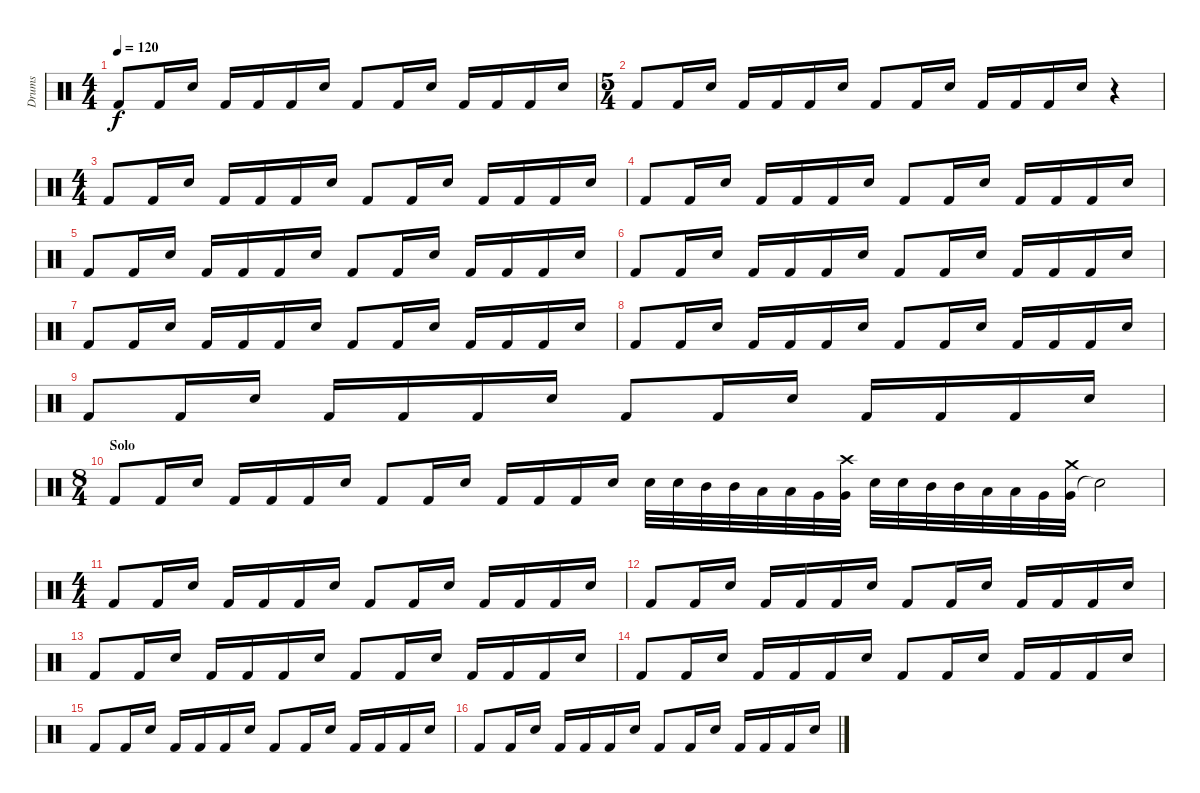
\track ("Drums" "Drums") {instrument percussion}
\staff {score}
\articulation defaults
\ts (4 4)
\tempo 120
\clef neutral
\ks c "Kick (hit) 2".8{dy f} "Kick (hit) 2".16 "Electric Snare (hit)".16 "Kick (hit) 2".16 "Kick (hit) 2".16 "Kick (hit) 2".16 "Electric Snare (hit)".16 "Kick (hit) 2".8 "Kick (hit) 2".16 "Electric Snare (hit)".16 "Kick (hit) 2".16 "Kick (hit) 2".16 "Kick (hit) 2".16 "Electric Snare (hit)".16
|
\ts (5 4)
"Kick (hit) 2".8 "Kick (hit) 2".16 "Electric Snare (hit)".16 "Kick (hit) 2".16 "Kick (hit) 2".16 "Kick (hit) 2".16 "Electric Snare (hit)".16 "Kick (hit) 2".8 "Kick (hit) 2".16 "Electric Snare (hit)".16 "Kick (hit) 2".16 "Kick (hit) 2".16 "Kick (hit) 2".16 "Electric Snare (hit)".16 r.4 |
\ts (4 4)
"Kick (hit) 2".8 "Kick (hit) 2".16 "Electric Snare (hit)".16 "Kick (hit) 2".16 "Kick (hit) 2".16 "Kick (hit) 2".16 "Electric Snare (hit)".16 "Kick (hit) 2".8 "Kick (hit) 2".16 "Electric Snare (hit)".16 "Kick (hit) 2".16 "Kick (hit) 2".16 "Kick (hit) 2".16 "Electric Snare (hit)".16 |
"Kick (hit) 2".8 "Kick (hit) 2".16 "Electric Snare (hit)".16 "Kick (hit) 2".16 "Kick (hit) 2".16 "Kick (hit) 2".16 "Electric Snare (hit)".16 "Kick (hit) 2".8 "Kick (hit) 2".16 "Electric Snare (hit)".16 "Kick (hit) 2".16 "Kick (hit) 2".16 "Kick (hit) 2".16 "Electric Snare (hit)".16 |
"Kick (hit) 2".8 "Kick (hit) 2".16 "Electric Snare (hit)".16 "Kick (hit) 2".16 "Kick (hit) 2".16 "Kick (hit) 2".16 "Electric Snare (hit)".16 "Kick (hit) 2".8 "Kick (hit) 2".16 "Electric Snare (hit)".16 "Kick (hit) 2".16 "Kick (hit) 2".16 "Kick (hit) 2".16 "Electric Snare (hit)".16 |
"Kick (hit) 2".8 "Kick (hit) 2".16 "Electric Snare (hit)".16 "Kick (hit) 2".16 "Kick (hit) 2".16 "Kick (hit) 2".16 "Electric Snare (hit)".16 "Kick (hit) 2".8 "Kick (hit) 2".16 "Electric Snare (hit)".16 "Kick (hit) 2".16 "Kick (hit) 2".16 "Kick (hit) 2".16 "Electric Snare (hit)".16 |
"Kick (hit) 2".8 "Kick (hit) 2".16 "Electric Snare (hit)".16 "Kick (hit) 2".16 "Kick (hit) 2".16 "Kick (hit) 2".16 "Electric Snare (hit)".16 "Kick (hit) 2".8 "Kick (hit) 2".16 "Electric Snare (hit)".16 "Kick (hit) 2".16 "Kick (hit) 2".16 "Kick (hit) 2".16 "Electric Snare (hit)".16 |
"Kick (hit) 2".8 "Kick (hit) 2".16 "Electric Snare (hit)".16 "Kick (hit) 2".16 "Kick (hit) 2".16 "Kick (hit) 2".16 "Electric Snare (hit)".16 "Kick (hit) 2".8 "Kick (hit) 2".16 "Electric Snare (hit)".16 "Kick (hit) 2".16 "Kick (hit) 2".16 "Kick (hit) 2".16 "Electric Snare (hit)".16 |
"Kick (hit) 2".8 "Kick (hit) 2".16 "Electric Snare (hit)".16 "Kick (hit) 2".16 "Kick (hit) 2".16 "Kick (hit) 2".16 "Electric Snare (hit)".16 "Kick (hit) 2".8 "Kick (hit) 2".16 "Electric Snare (hit)".16 "Kick (hit) 2".16 "Kick (hit) 2".16 "Kick (hit) 2".16 "Electric Snare (hit)".16 |
\ts (8 4)
\section ("" "Solo")
"Kick (hit) 2".8 "Kick (hit) 2".16 "Electric Snare (hit)".16 "Kick (hit) 2".16 "Kick (hit) 2".16 "Kick (hit) 2".16 "Electric Snare (hit)".16 "Kick (hit) 2".8 "Kick (hit) 2".16 "Electric Snare (hit)".16 "Kick (hit) 2".16 "Kick (hit) 2".16 "Kick (hit) 2".16 "Electric Snare (hit)".16 "Snare (hit) 2".32 "Snare (hit) 2".32 "Mid Tom (hit)".32 "Mid Tom (hit)".32 "Low Tom (hit)".32 "Low Tom (hit)".32 "Very Low Tom (hit)".32 ("Very Low Tom (hit)" "Crash high (hit)").32 "Snare (hit) 2".32 "Snare (hit) 2".32 "Mid Tom (hit)".32 "Mid Tom (hit)".32 "Low Tom (hit)".32 "Low Tom (hit)".32 "Very Low Tom (hit)".32 ("Very Low Tom (hit)" "Crash medium (hit)").32 "Snare (hit)"{t}.2 |
\ts (4 4)
"Kick (hit) 2".8 "Kick (hit) 2".16 "Electric Snare (hit)".16 "Kick (hit) 2".16 "Kick (hit) 2".16 "Kick (hit) 2".16 "Electric Snare (hit)".16 "Kick (hit) 2".8 "Kick (hit) 2".16 "Electric Snare (hit)".16 "Kick (hit) 2".16 "Kick (hit) 2".16 "Kick (hit) 2".16 "Electric Snare (hit)".16 |
"Kick (hit) 2".8 "Kick (hit) 2".16 "Electric Snare (hit)".16 "Kick (hit) 2".16 "Kick (hit) 2".16 "Kick (hit) 2".16 "Electric Snare (hit)".16 "Kick (hit) 2".8 "Kick (hit) 2".16 "Electric Snare (hit)".16 "Kick (hit) 2".16 "Kick (hit) 2".16 "Kick (hit) 2".16 "Electric Snare (hit)".16 |
"Kick (hit) 2".8 "Kick (hit) 2".16 "Electric Snare (hit)".16 "Kick (hit) 2".16 "Kick (hit) 2".16 "Kick (hit) 2".16 "Electric Snare (hit)".16 "Kick (hit) 2".8 "Kick (hit) 2".16 "Electric Snare (hit)".16 "Kick (hit) 2".16 "Kick (hit) 2".16 "Kick (hit) 2".16 "Electric Snare (hit)".16 |
"Kick (hit) 2".8 "Kick (hit) 2".16 "Electric Snare (hit)".16 "Kick (hit) 2".16 "Kick (hit) 2".16 "Kick (hit) 2".16 "Electric Snare (hit)".16 "Kick (hit) 2".8 "Kick (hit) 2".16 "Electric Snare (hit)".16 "Kick (hit) 2".16 "Kick (hit) 2".16 "Kick (hit) 2".16 "Electric Snare (hit)".16 |
"Kick (hit) 2".8 "Kick (hit) 2".16 "Electric Snare (hit)".16 "Kick (hit) 2".16 "Kick (hit) 2".16 "Kick (hit) 2".16 "Electric Snare (hit)".16 "Kick (hit) 2".8 "Kick (hit) 2".16 "Electric Snare (hit)".16 "Kick (hit) 2".16 "Kick (hit) 2".16 "Kick (hit) 2".16 "Electric Snare (hit)".16 |
"Kick (hit) 2".8 "Kick (hit) 2".16 "Electric Snare (hit)".16 "Kick (hit) 2".16 "Kick (hit) 2".16 "Kick (hit) 2".16 "Electric Snare (hit)".16 "Kick (hit) 2".8 "Kick (hit) 2".16 "Electric Snare (hit)".16 "Kick (hit) 2".16 "Kick (hit) 2".16 "Kick (hit) 2".16 "Electric Snare (hit)".16
